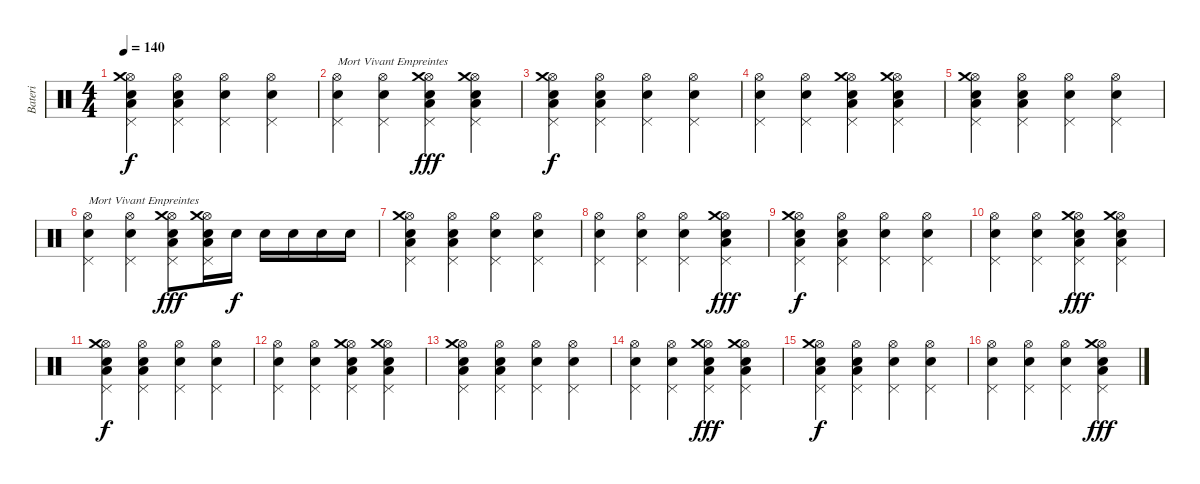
\track ("Bateri" "Bateri") {instrument percussion}
\staff {score}
\articulation defaults
\ts (4 4)
\tempo 140
\clef neutral
\ks c
("Hi-Hat (open)" "Low Tom (hit)" "Snare (hit) 2" "Crash medium (hit)" "Pedal Hi-Hat (hit)").4{dy f} ("Hi-Hat (open)" "Low Tom (hit)" "Snare (hit) 2" "Pedal Hi-Hat (hit)").4 ("Hi-Hat (open)" "Snare (hit) 2" "Pedal Hi-Hat (hit)").4 ("Hi-Hat (open)" "Snare (hit) 2" "Pedal Hi-Hat (hit)").4 |
("Hi-Hat (open)" "Snare (hit) 2" "Pedal Hi-Hat (hit)").4{txt "Mort Vivant Empreintes"} ("Hi-Hat (open)" "Snare (hit) 2" "Pedal Hi-Hat (hit)").4 ("Hi-Hat (open)" "Low Tom (hit)" "Snare (hit) 2" "Crash medium (hit)" "Pedal Hi-Hat (hit)").4{dy fff} ("Hi-Hat (open)" "Low Tom (hit)" "Snare (hit) 2" "Crash medium (hit)" "Pedal Hi-Hat (hit)").4 |
("Hi-Hat (open)" "Low Tom (hit)" "Snare (hit) 2" "Crash medium (hit)" "Pedal Hi-Hat (hit)").4{dy f} ("Hi-Hat (open)" "Low Tom (hit)" "Snare (hit) 2" "Pedal Hi-Hat (hit)").4 ("Hi-Hat (open)" "Snare (hit) 2" "Pedal Hi-Hat (hit)").4 ("Hi-Hat (open)" "Snare (hit) 2" "Pedal Hi-Hat (hit)").4 |
("Hi-Hat (open)" "Snare (hit) 2" "Pedal Hi-Hat (hit)").4 ("Hi-Hat (open)" "Snare (hit) 2" "Pedal Hi-Hat (hit)").4 ("Hi-Hat (open)" "Low Tom (hit)" "Snare (hit) 2" "Crash medium (hit)" "Pedal Hi-Hat (hit)").4 ("Hi-Hat (open)" "Low Tom (hit)" "Snare (hit) 2" "Crash medium (hit)" "Pedal Hi-Hat (hit)").4 |
("Hi-Hat (open)" "Low Tom (hit)" "Snare (hit) 2" "Crash medium (hit)" "Pedal Hi-Hat (hit)").4 ("Hi-Hat (open)" "Low Tom (hit)" "Snare (hit) 2" "Pedal Hi-Hat (hit)").4 ("Hi-Hat (open)" "Snare (hit) 2" "Pedal Hi-Hat (hit)").4 ("Hi-Hat (open)" "Snare (hit) 2" "Pedal Hi-Hat (hit)").4 |
("Hi-Hat (open)" "Snare (hit) 2" "Pedal Hi-Hat (hit)").4{txt "Mort Vivant Empreintes"} ("Hi-Hat (open)" "Snare (hit) 2" "Pedal Hi-Hat (hit)").4 ("Hi-Hat (open)" "Low Tom (hit)" "Snare (hit) 2" "Crash medium (hit)" "Pedal Hi-Hat (hit)").8{dy fff} ("Hi-Hat (open)" "Low Tom (hit)" "Snare (hit) 2" "Crash medium (hit)" "Pedal Hi-Hat (hit)").16 "Snare (hit) 2".16{dy f} "Snare (hit) 2".16 "Snare (hit) 2".16 "Snare (hit) 2".16 "Snare (hit) 2".16 |
("Hi-Hat (open)" "Low Tom (hit)" "Snare (hit) 2" "Crash medium (hit)" "Pedal Hi-Hat (hit)").4 ("Hi-Hat (open)" "Low Tom (hit)" "Snare (hit) 2" "Pedal Hi-Hat (hit)").4 ("Hi-Hat (open)" "Snare (hit) 2" "Pedal Hi-Hat (hit)").4 ("Hi-Hat (open)" "Snare (hit) 2" "Pedal Hi-Hat (hit)").4 |
("Hi-Hat (open)" "Snare (hit) 2" "Pedal Hi-Hat (hit)").4 ("Hi-Hat (open)" "Snare (hit) 2" "Pedal Hi-Hat (hit)").4 ("Hi-Hat (open)" "Snare (hit) 2" "Pedal Hi-Hat (hit)").4 ("Hi-Hat (open)" "Low Tom (hit)" "Snare (hit) 2" "Crash medium (hit)" "Pedal Hi-Hat (hit)").4{dy fff} |
("Hi-Hat (open)" "Low Tom (hit)" "Snare (hit) 2" "Crash medium (hit)" "Pedal Hi-Hat (hit)").4{dy f} ("Hi-Hat (open)" "Low Tom (hit)" "Snare (hit) 2" "Pedal Hi-Hat (hit)").4 ("Hi-Hat (open)" "Snare (hit) 2" "Pedal Hi-Hat (hit)").4 ("Hi-Hat (open)" "Snare (hit) 2" "Pedal Hi-Hat (hit)").4 |
("Hi-Hat (open)" "Snare (hit) 2" "Pedal Hi-Hat (hit)").4 ("Hi-Hat (open)" "Snare (hit) 2" "Pedal Hi-Hat (hit)").4 ("Hi-Hat (open)" "Low Tom (hit)" "Snare (hit) 2" "Crash medium (hit)" "Pedal Hi-Hat (hit)").4{dy fff} ("Hi-Hat (open)" "Low Tom (hit)" "Snare (hit) 2" "Crash medium (hit)" "Pedal Hi-Hat (hit)").4 |
("Hi-Hat (open)" "Low Tom (hit)" "Snare (hit) 2" "Crash medium (hit)" "Pedal Hi-Hat (hit)").4{dy f} ("Hi-Hat (open)" "Low Tom (hit)" "Snare (hit) 2" "Pedal Hi-Hat (hit)").4 ("Hi-Hat (open)" "Snare (hit) 2" "Pedal Hi-Hat (hit)").4 ("Hi-Hat (open)" "Snare (hit) 2" "Pedal Hi-Hat (hit)").4 |
("Hi-Hat (open)" "Snare (hit) 2" "Pedal Hi-Hat (hit)").4 ("Hi-Hat (open)" "Snare (hit) 2" "Pedal Hi-Hat (hit)").4 ("Hi-Hat (open)" "Low Tom (hit)" "Snare (hit) 2" "Crash medium (hit)" "Pedal Hi-Hat (hit)").4 ("Hi-Hat (open)" "Low Tom (hit)" "Snare (hit) 2" "Crash medium (hit)" "Pedal Hi-Hat (hit)").4 |
("Hi-Hat (open)" "Low Tom (hit)" "Snare (hit) 2" "Crash medium (hit)" "Pedal Hi-Hat (hit)").4 ("Hi-Hat (open)" "Low Tom (hit)" "Snare (hit) 2" "Pedal Hi-Hat (hit)").4 ("Hi-Hat (open)" "Snare (hit) 2" "Pedal Hi-Hat (hit)").4 ("Hi-Hat (open)" "Snare (hit) 2" "Pedal Hi-Hat (hit)").4 |
("Hi-Hat (open)" "Snare (hit) 2" "Pedal Hi-Hat (hit)").4 ("Hi-Hat (open)" "Snare (hit) 2" "Pedal Hi-Hat (hit)").4 ("Hi-Hat (open)" "Low Tom (hit)" "Snare (hit) 2" "Crash medium (hit)" "Pedal Hi-Hat (hit)").4{dy fff} ("Hi-Hat (open)" "Low Tom (hit)" "Snare (hit) 2" "Crash medium (hit)" "Pedal Hi-Hat (hit)").4 |
("Hi-Hat (open)" "Low Tom (hit)" "Snare (hit) 2" "Crash medium (hit)" "Pedal Hi-Hat (hit)").4{dy f} ("Hi-Hat (open)" "Low Tom (hit)" "Snare (hit) 2" "Pedal Hi-Hat (hit)").4 ("Hi-Hat (open)" "Snare (hit) 2" "Pedal Hi-Hat (hit)").4 ("Hi-Hat (open)" "Snare (hit) 2" "Pedal Hi-Hat (hit)").4 |
("Hi-Hat (open)" "Snare (hit) 2" "Pedal Hi-Hat (hit)").4 ("Hi-Hat (open)" "Snare (hit) 2" "Pedal Hi-Hat (hit)").4 ("Hi-Hat (open)" "Snare (hit) 2" "Pedal Hi-Hat (hit)").4 ("Hi-Hat (open)" "Low Tom (hit)" "Snare (hit) 2" "Crash medium (hit)" "Pedal Hi-Hat (hit)").4{dy fff}
